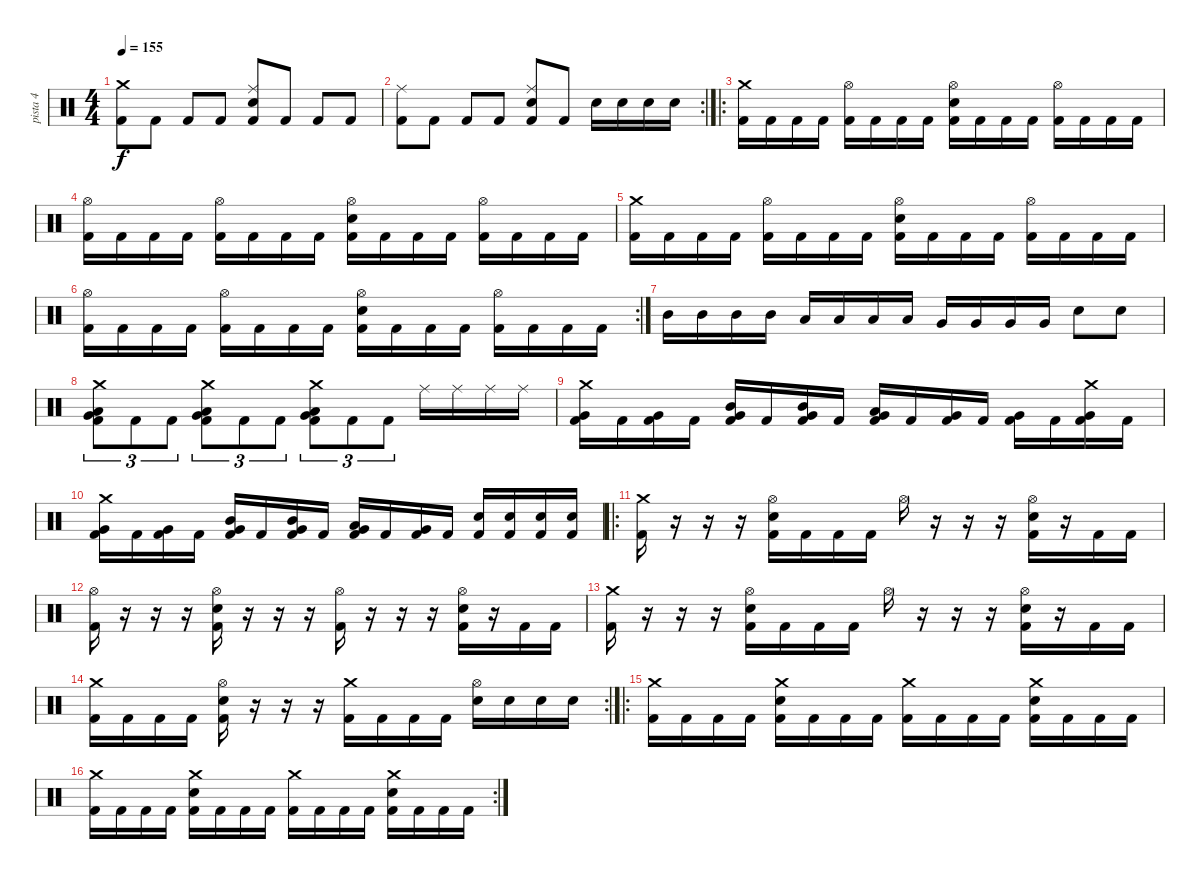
\track ("pista 4" "pista 4") {instrument percussion}
\staff {score}
\articulation defaults
\ts (4 4)
\tempo 155
\clef neutral
\ks c
("Crash medium (hit)" "Kick (hit) 2").8{dy f} "Kick (hit) 2".8 "Kick (hit) 2".8 "Kick (hit) 2".8 ("Ride (middle)" "Snare (hit) 2" "Kick (hit) 2").8 "Kick (hit) 2".8 "Kick (hit) 2".8 "Kick (hit) 2".8 |
\rc 2
("Ride (middle)" "Kick (hit) 2").8 "Kick (hit) 2".8 "Kick (hit) 2".8 "Kick (hit) 2".8 ("Ride (middle)" "Snare (hit) 2" "Kick (hit) 2").8 "Kick (hit) 2".8 "Snare (hit) 2".16 "Snare (hit) 2".16 "Snare (hit) 2".16 "Snare (hit) 2".16 |
\ro
("Crash medium (hit)" "Kick (hit) 2").16 "Kick (hit) 2".16 "Kick (hit) 2".16 "Kick (hit) 2".16 ("Hi-Hat (open)" "Kick (hit) 2").16 "Kick (hit) 2".16 "Kick (hit) 2".16 "Kick (hit) 2".16 ("Hi-Hat (open)" "Snare (hit) 2" "Kick (hit) 2").16 "Kick (hit) 2".16 "Kick (hit) 2".16 "Kick (hit) 2".16 ("Hi-Hat (open)" "Kick (hit) 2").16 "Kick (hit) 2".16 "Kick (hit) 2".16 "Kick (hit) 2".16 |
("Hi-Hat (open)" "Kick (hit) 2").16 "Kick (hit) 2".16 "Kick (hit) 2".16 "Kick (hit) 2".16 ("Hi-Hat (open)" "Kick (hit) 2").16 "Kick (hit) 2".16 "Kick (hit) 2".16 "Kick (hit) 2".16 ("Hi-Hat (open)" "Snare (hit) 2" "Kick (hit) 2").16 "Kick (hit) 2".16 "Kick (hit) 2".16 "Kick (hit) 2".16 ("Hi-Hat (open)" "Kick (hit) 2").16 "Kick (hit) 2".16 "Kick (hit) 2".16 "Kick (hit) 2".16 |
("Crash medium (hit)" "Kick (hit) 2").16 "Kick (hit) 2".16 "Kick (hit) 2".16 "Kick (hit) 2".16 ("Hi-Hat (open)" "Kick (hit) 2").16 "Kick (hit) 2".16 "Kick (hit) 2".16 "Kick (hit) 2".16 ("Hi-Hat (open)" "Snare (hit) 2" "Kick (hit) 2").16 "Kick (hit) 2".16 "Kick (hit) 2".16 "Kick (hit) 2".16 ("Hi-Hat (open)" "Kick (hit) 2").16 "Kick (hit) 2".16 "Kick (hit) 2".16 "Kick (hit) 2".16 |
\rc 2
("Hi-Hat (open)" "Kick (hit) 2").16 "Kick (hit) 2".16 "Kick (hit) 2".16 "Kick (hit) 2".16 ("Hi-Hat (open)" "Kick (hit) 2").16 "Kick (hit) 2".16 "Kick (hit) 2".16 "Kick (hit) 2".16 ("Hi-Hat (open)" "Snare (hit) 2" "Kick (hit) 2").16 "Kick (hit) 2".16 "Kick (hit) 2".16 "Kick (hit) 2".16 ("Hi-Hat (open)" "Kick (hit) 2").16 "Kick (hit) 2".16 "Kick (hit) 2".16 "Kick (hit) 2".16 |
"Mid Tom (hit)".16 "Mid Tom (hit)".16 "Mid Tom (hit)".16 "Mid Tom (hit)".16 "Low Tom (hit)".16 "Low Tom (hit)".16 "Low Tom (hit)".16 "Low Tom (hit)".16 "Very Low Tom (hit)".16 "Very Low Tom (hit)".16 "Very Low Tom (hit)".16 "Very Low Tom (hit)".16 "Snare (hit) 2".8 "Snare (hit) 2".8 |
("Crash medium (hit)" "Low Tom (hit)" "Very Low Tom (hit)" "Kick (hit) 2").8{tu (3 2)} "Kick (hit) 2".8{tu (3 2)} "Kick (hit) 2".8{tu (3 2)} ("Crash medium (hit)" "Very Low Tom (hit)" "Low Floor Tom (hit)" "Kick (hit) 2").8{tu (3 2)} "Kick (hit) 2".8{tu (3 2)} "Kick (hit) 2".8{tu (3 2)} ("Crash medium (hit)" "Very Low Tom (hit)" "Low Floor Tom (hit)" "Kick (hit) 2").8{tu (3 2)} "Kick (hit) 2".8{tu (3 2)} "Kick (hit) 2".8{tu (3 2)} "Ride (middle)".16 "Ride (middle)".16 "Ride (middle)".16 "Ride (middle)".16 |
("Crash medium (hit)" "Very Low Tom (hit)" "Kick (hit) 2").16 "Kick (hit) 2".16 ("Very Low Tom (hit)" "Kick (hit) 2").16 "Kick (hit) 2".16 ("Mid Tom (hit)" "Very Low Tom (hit)" "Kick (hit) 2").16 "Kick (hit) 2".16 ("Mid Tom (hit)" "Very Low Tom (hit)" "Kick (hit) 2").16 "Kick (hit) 2".16 ("Low Tom (hit)" "Very Low Tom (hit)" "Kick (hit) 2").16 "Kick (hit) 2".16 ("Very Low Tom (hit)" "Kick (hit) 2").16 "Kick (hit) 2".16 ("Very Low Tom (hit)" "Kick (hit) 2").16 "Kick (hit) 2".16 ("Crash medium (hit)" "Very Low Tom (hit)" "Kick (hit) 2").16 "Kick (hit) 2".16 |
("Crash medium (hit)" "Very Low Tom (hit)" "Kick (hit) 2").16 "Kick (hit) 2".16 ("Very Low Tom (hit)" "Kick (hit) 2").16 "Kick (hit) 2".16 ("Mid Tom (hit)" "Very Low Tom (hit)" "Kick (hit) 2").16 "Kick (hit) 2".16 ("Mid Tom (hit)" "Very Low Tom (hit)" "Kick (hit) 2").16 "Kick (hit) 2".16 ("Low Tom (hit)" "Very Low Tom (hit)" "Kick (hit) 2").16 "Kick (hit) 2".16 ("Very Low Tom (hit)" "Kick (hit) 2").16 "Kick (hit) 2".16 ("Snare (hit) 2" "Kick (hit) 2").16 ("Snare (hit) 2" "Kick (hit) 2").16 ("Snare (hit) 2" "Kick (hit) 2").16 ("Snare (hit) 2" "Kick (hit) 2").16 |
\ro
("Crash medium (hit)" "Kick (hit) 2").16 r.16 r.16 r.16 ("Hi-Hat (open)" "Snare (hit) 2" "Kick (hit) 2").16 "Kick (hit) 2".16 "Kick (hit) 2".16 "Kick (hit) 2".16 "Hi-Hat (open)".16 r.16 r.16 r.16 ("Hi-Hat (open)" "Snare (hit) 2" "Kick (hit) 2").16 r.16 "Kick (hit) 2".16 "Kick (hit) 2".16 |
("Hi-Hat (open)" "Kick (hit) 2").16 r.16 r.16 r.16 ("Hi-Hat (open)" "Snare (hit) 2" "Kick (hit) 2").16 r.16 r.16 r.16 ("Hi-Hat (open)" "Kick (hit) 2").16 r.16 r.16 r.16 ("Hi-Hat (open)" "Snare (hit) 2" "Kick (hit) 2").16 r.16 "Kick (hit) 2".16 "Kick (hit) 2".16 |
("Crash medium (hit)" "Kick (hit) 2").16 r.16 r.16 r.16 ("Hi-Hat (open)" "Snare (hit) 2" "Kick (hit) 2").16 "Kick (hit) 2".16 "Kick (hit) 2".16 "Kick (hit) 2".16 "Hi-Hat (open)".16 r.16 r.16 r.16 ("Hi-Hat (open)" "Snare (hit) 2" "Kick (hit) 2").16 r.16 "Kick (hit) 2".16 "Kick (hit) 2".16 |
\rc 2
("Crash medium (hit)" "Kick (hit) 2").16 "Kick (hit) 2".16 "Kick (hit) 2".16 "Kick (hit) 2".16 ("Hi-Hat (open)" "Snare (hit) 2" "Kick (hit) 2").16 r.16 r.16 r.16 ("Crash medium (hit)" "Kick (hit) 2").16 "Kick (hit) 2".16 "Kick (hit) 2".16 "Kick (hit) 2".16 ("Hi-Hat (open)" "Snare (hit) 2").16 "Snare (hit) 2".16 "Snare (hit) 2".16 "Snare (hit) 2".16 |
\ro
("Crash medium (hit)" "Kick (hit) 2").16 "Kick (hit) 2".16 "Kick (hit) 2".16 "Kick (hit) 2".16 ("Crash medium (hit)" "Snare (hit) 2" "Kick (hit) 2").16 "Kick (hit) 2".16 "Kick (hit) 2".16 "Kick (hit) 2".16 ("Crash medium (hit)" "Kick (hit) 2").16 "Kick (hit) 2".16 "Kick (hit) 2".16 "Kick (hit) 2".16 ("Crash medium (hit)" "Snare (hit) 2" "Kick (hit) 2").16 "Kick (hit) 2".16 "Kick (hit) 2".16 "Kick (hit) 2".16 |
\rc 2
("Crash medium (hit)" "Kick (hit) 2").16 "Kick (hit) 2".16 "Kick (hit) 2".16 "Kick (hit) 2".16 ("Crash medium (hit)" "Snare (hit) 2" "Kick (hit) 2").16 "Kick (hit) 2".16 "Kick (hit) 2".16 "Kick (hit) 2".16 ("Crash medium (hit)" "Kick (hit) 2").16 "Kick (hit) 2".16 "Kick (hit) 2".16 "Kick (hit) 2".16 ("Crash medium (hit)" "Snare (hit) 2" "Kick (hit) 2").16 "Kick (hit) 2".16 "Kick (hit) 2".16 "Kick (hit) 2".16
